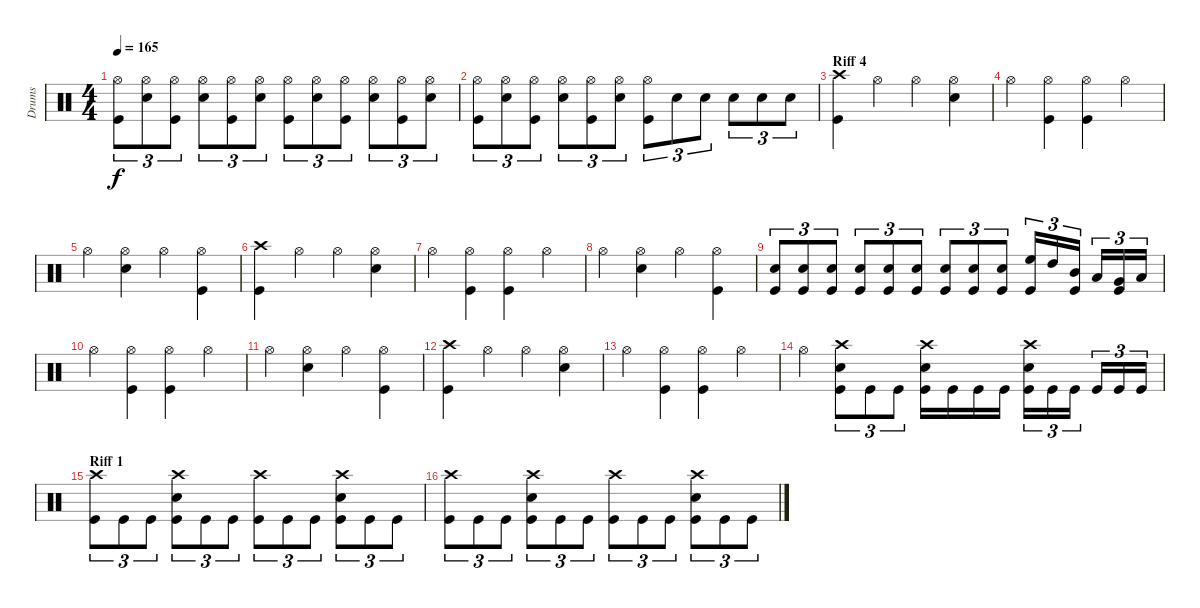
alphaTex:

\track ("Drums" "Drums") {instrument percussion}
\staff {score}
\articulation defaults
\ts (4 4)
\tempo 165
\clef neutral
\ks c
("Hi-Hat (open)" "Kick (hit)").8{tu (3 2) dy f} ("Hi-Hat (open)" "Electric Snare (hit)").8{tu (3 2)} ("Hi-Hat (open)" "Kick (hit)").8{tu (3 2)} ("Hi-Hat (open)" "Electric Snare (hit)").8{tu (3 2)} ("Hi-Hat (open)" "Kick (hit)").8{tu (3 2)} ("Hi-Hat (open)" "Electric Snare (hit)").8{tu (3 2)} ("Hi-Hat (open)" "Kick (hit)").8{tu (3 2)} ("Hi-Hat (open)" "Electric Snare (hit)").8{tu (3 2)} ("Hi-Hat (open)" "Kick (hit)").8{tu (3 2)} ("Hi-Hat (open)" "Electric Snare (hit)").8{tu (3 2)} ("Hi-Hat (open)" "Kick (hit)").8{tu (3 2)} ("Hi-Hat (open)" "Electric Snare (hit)").8{tu (3 2)} |
("Hi-Hat (open)" "Kick (hit)").8{tu (3 2)} ("Hi-Hat (open)" "Electric Snare (hit)").8{tu (3 2)} ("Hi-Hat (open)" "Kick (hit)").8{tu (3 2)} ("Hi-Hat (open)" "Electric Snare (hit)").8{tu (3 2)} ("Hi-Hat (open)" "Kick (hit)").8{tu (3 2)} ("Hi-Hat (open)" "Electric Snare (hit)").8{tu (3 2)} ("Hi-Hat (open)" "Kick (hit)").8{tu (3 2)} "Electric Snare (hit)".8{tu (3 2)} "Electric Snare (hit)".8{tu (3 2)} "Electric Snare (hit)".8{tu (3 2)} "Electric Snare (hit)".8{tu (3 2)} "Electric Snare (hit)".8{tu (3 2)} |
\section ("" "Riff 4")
("Crash high (hit)" "Kick (hit)").4 "Hi-Hat (open)".4 "Hi-Hat (open)".4 ("Hi-Hat (open)" "Electric Snare (hit)").4 |
"Hi-Hat (open)".4 ("Hi-Hat (open)" "Kick (hit)").4 ("Hi-Hat (open)" "Kick (hit)").4 "Hi-Hat (open)".4 |
"Hi-Hat (open)".4 ("Hi-Hat (open)" "Electric Snare (hit)").4 "Hi-Hat (open)".4 ("Hi-Hat (open)" "Kick (hit)").4 |
("Crash high (hit)" "Kick (hit)").4 "Hi-Hat (open)".4 "Hi-Hat (open)".4 ("Hi-Hat (open)" "Electric Snare (hit)").4 |
"Hi-Hat (open)".4 ("Hi-Hat (open)" "Kick (hit)").4 ("Hi-Hat (open)" "Kick (hit)").4 "Hi-Hat (open)".4 |
"Hi-Hat (open)".4 ("Hi-Hat (open)" "Electric Snare (hit)").4 "Hi-Hat (open)".4 ("Hi-Hat (open)" "Kick (hit)").4 |
("Electric Snare (hit)" "Kick (hit)").8{tu (3 2)} ("Electric Snare (hit)" "Kick (hit)").8{tu (3 2)} ("Electric Snare (hit)" "Kick (hit)").8{tu (3 2)} ("Electric Snare (hit)" "Kick (hit)").8{tu (3 2)} ("Electric Snare (hit)" "Kick (hit)").8{tu (3 2)} ("Electric Snare (hit)" "Kick (hit)").8{tu (3 2)} ("Electric Snare (hit)" "Kick (hit)").8{tu (3 2)} ("Electric Snare (hit)" "Kick (hit)").8{tu (3 2)} ("Electric Snare (hit)" "Kick (hit)").8{tu (3 2)} ("High Floor Tom (hit)" "Kick (hit)").16{tu (3 2)} "High Tom (hit)".16{tu (3 2)} ("Mid Tom (hit)" "Kick (hit)").16{tu (3 2)} "Low Tom (hit)".16{tu (3 2)} ("Very Low Tom (hit)" "Kick (hit)").16{tu (3 2)} "Low Floor Tom (hit)".16{tu (3 2)} |
"Hi-Hat (open)".4 ("Hi-Hat (open)" "Kick (hit)").4 ("Hi-Hat (open)" "Kick (hit)").4 "Hi-Hat (open)".4 |
"Hi-Hat (open)".4 ("Hi-Hat (open)" "Electric Snare (hit)").4 "Hi-Hat (open)".4 ("Hi-Hat (open)" "Kick (hit)").4 |
("Crash high (hit)" "Kick (hit)").4 "Hi-Hat (open)".4 "Hi-Hat (open)".4 ("Hi-Hat (open)" "Electric Snare (hit)").4 |
"Hi-Hat (open)".4 ("Hi-Hat (open)" "Kick (hit)").4 ("Hi-Hat (open)" "Kick (hit)").4 "Hi-Hat (open)".4 |
"Hi-Hat (open)".4 ("Crash high (hit)" "Electric Snare (hit)" "Kick (hit)").8{tu (3 2)} "Kick (hit)".8{tu (3 2)} "Kick (hit)".8{tu (3 2)} ("Crash high (hit)" "Electric Snare (hit)" "Kick (hit)").16 "Kick (hit)".16 "Kick (hit)".16 "Kick (hit)".16 ("Crash high (hit)" "Electric Snare (hit)" "Kick (hit)").16{tu (3 2)} "Kick (hit)".16{tu (3 2)} "Kick (hit)".16{tu (3 2)} "Kick (hit)".16{tu (3 2)} "Kick (hit)".16{tu (3 2)} "Kick (hit)".16{tu (3 2)} |
\section ("" "Riff 1")
("Crash high (hit)" "Kick (hit)").8{tu (3 2)} "Kick (hit)".8{tu (3 2)} "Kick (hit)".8{tu (3 2)} ("Crash high (hit)" "Electric Snare (hit)" "Kick (hit)").8{tu (3 2)} "Kick (hit)".8{tu (3 2)} "Kick (hit)".8{tu (3 2)} ("Crash high (hit)" "Kick (hit)").8{tu (3 2)} "Kick (hit)".8{tu (3 2)} "Kick (hit)".8{tu (3 2)} ("Crash high (hit)" "Electric Snare (hit)" "Kick (hit)").8{tu (3 2)} "Kick (hit)".8{tu (3 2)} "Kick (hit)".8{tu (3 2)} |
("Crash high (hit)" "Kick (hit)").8{tu (3 2)} "Kick (hit)".8{tu (3 2)} "Kick (hit)".8{tu (3 2)} ("Crash high (hit)" "Electric Snare (hit)" "Kick (hit)").8{tu (3 2)} "Kick (hit)".8{tu (3 2)} "Kick (hit)".8{tu (3 2)} ("Crash high (hit)" "Kick (hit)").8{tu (3 2)} "Kick (hit)".8{tu (3 2)} "Kick (hit)".8{tu (3 2)} ("Crash high (hit)" "Electric Snare (hit)" "Kick (hit)").8{tu (3 2)} "Kick (hit)".8{tu (3 2)} "Kick (hit)".8{tu (3 2)}
